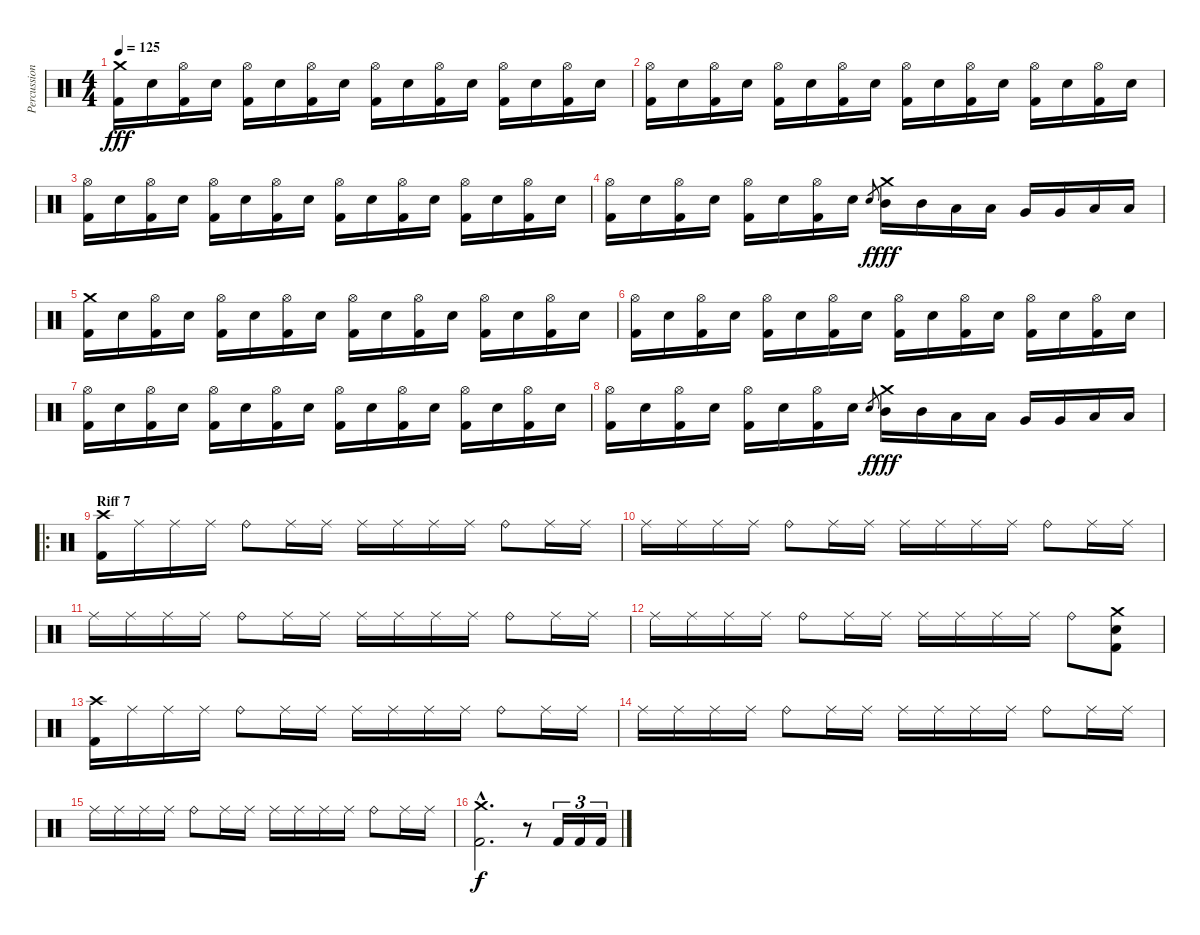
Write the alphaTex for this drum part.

\track ("Percussion" "Percussion") {instrument percussion}
\staff {score}
\articulation defaults
\ts (4 4)
\tempo 125
\clef neutral
\ks c
("Crash medium (hit)" "Kick (hit) 2").16{dy fff} "Electric Snare (hit)".16 ("Hi-Hat (open)" "Kick (hit) 2").16 "Electric Snare (hit)".16 ("Hi-Hat (open)" "Kick (hit) 2").16 "Electric Snare (hit)".16 ("Hi-Hat (open)" "Kick (hit) 2").16 "Electric Snare (hit)".16 ("Hi-Hat (open)" "Kick (hit) 2").16 "Electric Snare (hit)".16 ("Hi-Hat (open)" "Kick (hit) 2").16 "Electric Snare (hit)".16 ("Hi-Hat (open)" "Kick (hit) 2").16 "Electric Snare (hit)".16 ("Hi-Hat (open)" "Kick (hit) 2").16 "Electric Snare (hit)".16 |
("Hi-Hat (open)" "Kick (hit) 2").16 "Electric Snare (hit)".16 ("Hi-Hat (open)" "Kick (hit) 2").16 "Electric Snare (hit)".16 ("Hi-Hat (open)" "Kick (hit) 2").16 "Electric Snare (hit)".16 ("Hi-Hat (open)" "Kick (hit) 2").16 "Electric Snare (hit)".16 ("Hi-Hat (open)" "Kick (hit) 2").16 "Electric Snare (hit)".16 ("Hi-Hat (open)" "Kick (hit) 2").16 "Electric Snare (hit)".16 ("Hi-Hat (open)" "Kick (hit) 2").16 "Electric Snare (hit)".16 ("Hi-Hat (open)" "Kick (hit) 2").16 "Electric Snare (hit)".16 |
("Hi-Hat (open)" "Kick (hit) 2").16 "Electric Snare (hit)".16 ("Hi-Hat (open)" "Kick (hit) 2").16 "Electric Snare (hit)".16 ("Hi-Hat (open)" "Kick (hit) 2").16 "Electric Snare (hit)".16 ("Hi-Hat (open)" "Kick (hit) 2").16 "Electric Snare (hit)".16 ("Hi-Hat (open)" "Kick (hit) 2").16 "Electric Snare (hit)".16 ("Hi-Hat (open)" "Kick (hit) 2").16 "Electric Snare (hit)".16 ("Hi-Hat (open)" "Kick (hit) 2").16 "Electric Snare (hit)".16 ("Hi-Hat (open)" "Kick (hit) 2").16 "Electric Snare (hit)".16 |
("Hi-Hat (open)" "Kick (hit) 2").16 "Electric Snare (hit)".16 ("Hi-Hat (open)" "Kick (hit) 2").16 "Electric Snare (hit)".16 ("Hi-Hat (open)" "Kick (hit) 2").16 "Electric Snare (hit)".16 ("Hi-Hat (open)" "Kick (hit) 2").16 "Electric Snare (hit)".16 "Electric Snare (hit)".8{gr dy f} ("Crash medium (hit)" "Mid Tom (hit)").16{dy fff} "Mid Tom (hit)".16 "Low Tom (hit)".16 "Low Tom (hit)".16 "Very Low Tom (hit)".16 "Very Low Tom (hit)".16 "Low Floor Tom (hit)".16 "Low Floor Tom (hit)".16 |
("Crash medium (hit)" "Kick (hit) 2").16 "Electric Snare (hit)".16 ("Hi-Hat (open)" "Kick (hit) 2").16 "Electric Snare (hit)".16 ("Hi-Hat (open)" "Kick (hit) 2").16 "Electric Snare (hit)".16 ("Hi-Hat (open)" "Kick (hit) 2").16 "Electric Snare (hit)".16 ("Hi-Hat (open)" "Kick (hit) 2").16 "Electric Snare (hit)".16 ("Hi-Hat (open)" "Kick (hit) 2").16 "Electric Snare (hit)".16 ("Hi-Hat (open)" "Kick (hit) 2").16 "Electric Snare (hit)".16 ("Hi-Hat (open)" "Kick (hit) 2").16 "Electric Snare (hit)".16 |
("Hi-Hat (open)" "Kick (hit) 2").16 "Electric Snare (hit)".16 ("Hi-Hat (open)" "Kick (hit) 2").16 "Electric Snare (hit)".16 ("Hi-Hat (open)" "Kick (hit) 2").16 "Electric Snare (hit)".16 ("Hi-Hat (open)" "Kick (hit) 2").16 "Electric Snare (hit)".16 ("Hi-Hat (open)" "Kick (hit) 2").16 "Electric Snare (hit)".16 ("Hi-Hat (open)" "Kick (hit) 2").16 "Electric Snare (hit)".16 ("Hi-Hat (open)" "Kick (hit) 2").16 "Electric Snare (hit)".16 ("Hi-Hat (open)" "Kick (hit) 2").16 "Electric Snare (hit)".16 |
("Hi-Hat (open)" "Kick (hit) 2").16 "Electric Snare (hit)".16 ("Hi-Hat (open)" "Kick (hit) 2").16 "Electric Snare (hit)".16 ("Hi-Hat (open)" "Kick (hit) 2").16 "Electric Snare (hit)".16 ("Hi-Hat (open)" "Kick (hit) 2").16 "Electric Snare (hit)".16 ("Hi-Hat (open)" "Kick (hit) 2").16 "Electric Snare (hit)".16 ("Hi-Hat (open)" "Kick (hit) 2").16 "Electric Snare (hit)".16 ("Hi-Hat (open)" "Kick (hit) 2").16 "Electric Snare (hit)".16 ("Hi-Hat (open)" "Kick (hit) 2").16 "Electric Snare (hit)".16 |
("Hi-Hat (open)" "Kick (hit) 2").16 "Electric Snare (hit)".16 ("Hi-Hat (open)" "Kick (hit) 2").16 "Electric Snare (hit)".16 ("Hi-Hat (open)" "Kick (hit) 2").16 "Electric Snare (hit)".16 ("Hi-Hat (open)" "Kick (hit) 2").16 "Electric Snare (hit)".16 "Electric Snare (hit)".8{gr dy f} ("Crash medium (hit)" "Mid Tom (hit)").16{dy fff} "Mid Tom (hit)".16 "Low Tom (hit)".16 "Low Tom (hit)".16 "Very Low Tom (hit)".16 "Very Low Tom (hit)".16 "Low Floor Tom (hit)".16 "Low Floor Tom (hit)".16 |
\ro
\section ("" "Riff 7")
("Crash high (hit)" "Kick (hit) 2").16 "Ride (middle)".16 "Ride (middle)".16 "Ride (middle)".16 "Ride (bell)".8 "Ride (middle)".16 "Ride (middle)".16 "Ride (middle)".16 "Ride (middle)".16 "Ride (middle)".16 "Ride (middle)".16 "Ride (bell)".8 "Ride (middle)".16 "Ride (middle)".16 |
"Ride (middle)".16 "Ride (middle)".16 "Ride (middle)".16 "Ride (middle)".16 "Ride (bell)".8 "Ride (middle)".16 "Ride (middle)".16 "Ride (middle)".16 "Ride (middle)".16 "Ride (middle)".16 "Ride (middle)".16 "Ride (bell)".8 "Ride (middle)".16 "Ride (middle)".16 |
"Ride (middle)".16 "Ride (middle)".16 "Ride (middle)".16 "Ride (middle)".16 "Ride (bell)".8 "Ride (middle)".16 "Ride (middle)".16 "Ride (middle)".16 "Ride (middle)".16 "Ride (middle)".16 "Ride (middle)".16 "Ride (bell)".8 "Ride (middle)".16 "Ride (middle)".16 |
"Ride (middle)".16 "Ride (middle)".16 "Ride (middle)".16 "Ride (middle)".16 "Ride (bell)".8 "Ride (middle)".16 "Ride (middle)".16 "Ride (middle)".16 "Ride (middle)".16 "Ride (middle)".16 "Ride (middle)".16 "Ride (bell)".8 ("Crash medium (hit)" "Electric Snare (hit)" "Kick (hit) 2").8 |
("Crash high (hit)" "Kick (hit) 2").16 "Ride (middle)".16 "Ride (middle)".16 "Ride (middle)".16 "Ride (bell)".8 "Ride (middle)".16 "Ride (middle)".16 "Ride (middle)".16 "Ride (middle)".16 "Ride (middle)".16 "Ride (middle)".16 "Ride (bell)".8 "Ride (middle)".16 "Ride (middle)".16 |
"Ride (middle)".16 "Ride (middle)".16 "Ride (middle)".16 "Ride (middle)".16 "Ride (bell)".8 "Ride (middle)".16 "Ride (middle)".16 "Ride (middle)".16 "Ride (middle)".16 "Ride (middle)".16 "Ride (middle)".16 "Ride (bell)".8 "Ride (middle)".16 "Ride (middle)".16 |
"Ride (middle)".16 "Ride (middle)".16 "Ride (middle)".16 "Ride (middle)".16 "Ride (bell)".8 "Ride (middle)".16 "Ride (middle)".16 "Ride (middle)".16 "Ride (middle)".16 "Ride (middle)".16 "Ride (middle)".16 "Ride (bell)".8 "Ride (middle)".16 "Ride (middle)".16 |
("Crash medium (hit)"{hac} "Kick (hit) 2"{hac}).2{d dy f} r.8 "Kick (hit) 2".16{tu (3 2) volume 15} "Kick (hit) 2".16{tu (3 2)} "Kick (hit) 2".16{tu (3 2)}
